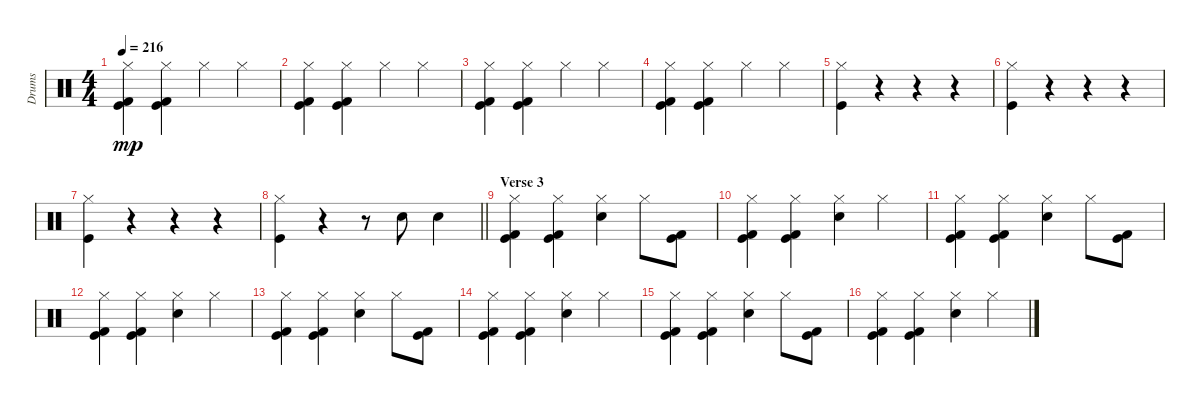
\track ("Drums" "Drums") {instrument percussion}
\staff {score}
\articulation defaults
\ts (4 4)
\tempo 216
\clef neutral
\ks c
("Hi-Hat (closed)" "Kick (hit) 2" "Kick (hit)").4{dy mp} ("Hi-Hat (closed)" "Kick (hit) 2" "Kick (hit)").4 "Hi-Hat (closed)".4 "Hi-Hat (closed)".4 |
("Hi-Hat (closed)" "Kick (hit) 2" "Kick (hit)").4 ("Hi-Hat (closed)" "Kick (hit) 2" "Kick (hit)").4 "Hi-Hat (closed)".4 "Hi-Hat (closed)".4 |
("Hi-Hat (closed)" "Kick (hit) 2" "Kick (hit)").4 ("Hi-Hat (closed)" "Kick (hit) 2" "Kick (hit)").4 "Hi-Hat (closed)".4 "Hi-Hat (closed)".4 |
("Hi-Hat (closed)" "Kick (hit) 2" "Kick (hit)").4 ("Hi-Hat (closed)" "Kick (hit) 2" "Kick (hit)").4 "Hi-Hat (closed)".4 "Hi-Hat (closed)".4 |
("Hi-Hat (closed)" "Kick (hit)").4 r.4 r.4 r.4 |
("Hi-Hat (closed)" "Kick (hit)").4 r.4 r.4 r.4 |
("Hi-Hat (closed)" "Kick (hit)").4 r.4 r.4 r.4 |
\barLineRight lightlight
("Hi-Hat (closed)" "Kick (hit)").4 r.4 r.8 "Snare (hit) 2".8 "Snare (hit) 2".4 |
\section ("" "Verse 3")
("Hi-Hat (closed)" "Kick (hit)" "Kick (hit) 2").4 ("Hi-Hat (closed)" "Kick (hit)" "Kick (hit) 2").4 ("Hi-Hat (closed)" "Snare (hit) 2").4 "Hi-Hat (closed)".8 ("Kick (hit)" "Kick (hit) 2").8 |
("Hi-Hat (closed)" "Kick (hit)" "Kick (hit) 2").4 ("Hi-Hat (closed)" "Kick (hit)" "Kick (hit) 2").4 ("Hi-Hat (closed)" "Snare (hit) 2").4 "Hi-Hat (closed)".4 |
("Hi-Hat (closed)" "Kick (hit)" "Kick (hit) 2").4 ("Hi-Hat (closed)" "Kick (hit)" "Kick (hit) 2").4 ("Hi-Hat (closed)" "Snare (hit) 2").4 "Hi-Hat (closed)".8 ("Kick (hit)" "Kick (hit) 2").8 |
("Hi-Hat (closed)" "Kick (hit)" "Kick (hit) 2").4 ("Hi-Hat (closed)" "Kick (hit)" "Kick (hit) 2").4 ("Hi-Hat (closed)" "Snare (hit) 2").4 "Hi-Hat (closed)".4 |
("Hi-Hat (closed)" "Kick (hit)" "Kick (hit) 2").4 ("Hi-Hat (closed)" "Kick (hit)" "Kick (hit) 2").4 ("Hi-Hat (closed)" "Snare (hit) 2").4 "Hi-Hat (closed)".8 ("Kick (hit)" "Kick (hit) 2").8 |
("Hi-Hat (closed)" "Kick (hit)" "Kick (hit) 2").4 ("Hi-Hat (closed)" "Kick (hit)" "Kick (hit) 2").4 ("Hi-Hat (closed)" "Snare (hit) 2").4 "Hi-Hat (closed)".4 |
("Hi-Hat (closed)" "Kick (hit)" "Kick (hit) 2").4 ("Hi-Hat (closed)" "Kick (hit)" "Kick (hit) 2").4 ("Hi-Hat (closed)" "Snare (hit) 2").4 "Hi-Hat (closed)".8 ("Kick (hit)" "Kick (hit) 2").8 |
("Hi-Hat (closed)" "Kick (hit)" "Kick (hit) 2").4 ("Hi-Hat (closed)" "Kick (hit)" "Kick (hit) 2").4 ("Hi-Hat (closed)" "Snare (hit) 2").4 "Hi-Hat (closed)".4
